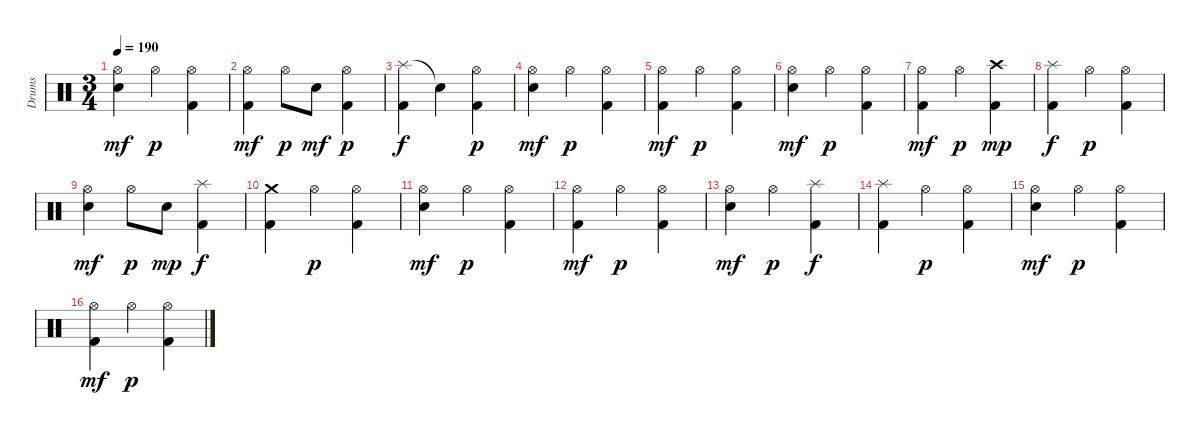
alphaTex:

\track ("Drums" "Drums") {instrument percussion}
\staff {score}
\articulation defaults
\ts (3 4)
\tempo 190
\clef neutral
\ks c
("Hi-Hat (open)" "Electric Snare (hit)").4{dy mf} "Hi-Hat (open)".4{dy p} ("Hi-Hat (open)" "Kick (hit) 2").4 |
("Hi-Hat (open)" "Kick (hit) 2").4{dy mf} "Hi-Hat (open)".8{dy p} "Electric Snare (hit)".8{dy mf} ("Hi-Hat (open)" "Kick (hit) 2").4{dy p} |
("Splash (hit)" "Kick (hit) 2").4{dy f} "Snare (hit)"{t}.4 ("Hi-Hat (open)" "Kick (hit) 2").4{dy p} |
("Hi-Hat (open)" "Electric Snare (hit)").4{dy mf} "Hi-Hat (open)".4{dy p} ("Hi-Hat (open)" "Kick (hit) 2").4 |
("Hi-Hat (open)" "Kick (hit) 2").4{dy mf} "Hi-Hat (open)".4{dy p} ("Hi-Hat (open)" "Kick (hit) 2").4 |
("Hi-Hat (open)" "Electric Snare (hit)").4{dy mf} "Hi-Hat (open)".4{dy p} ("Hi-Hat (open)" "Kick (hit) 2").4 |
("Hi-Hat (open)" "Kick (hit) 2").4{dy mf} "Hi-Hat (open)".4{dy p} ("Crash high (hit)" "Kick (hit) 2").4{dy mp} |
("Splash (hit)" "Kick (hit) 2").4{dy f} "Hi-Hat (open)".4{dy p} ("Hi-Hat (open)" "Kick (hit) 2").4 |
("Hi-Hat (open)" "Electric Snare (hit)").4{dy mf} "Hi-Hat (open)".8{dy p} "Electric Snare (hit)".8{dy mp} ("Splash (hit)" "Kick (hit) 2").4{dy f} |
("Crash medium (hit)" "Kick (hit) 2").4 "Hi-Hat (open)".4{dy p} ("Hi-Hat (open)" "Kick (hit) 2").4 |
("Hi-Hat (open)" "Electric Snare (hit)").4{dy mf} "Hi-Hat (open)".4{dy p} ("Hi-Hat (open)" "Kick (hit) 2").4 |
("Hi-Hat (open)" "Kick (hit) 2").4{dy mf} "Hi-Hat (open)".4{dy p} ("Hi-Hat (open)" "Kick (hit) 2").4 |
("Hi-Hat (open)" "Electric Snare (hit)").4{dy mf} "Hi-Hat (open)".4{dy p} ("Splash (hit)" "Kick (hit) 2").4{dy f} |
("Splash (hit)" "Kick (hit) 2").4 "Hi-Hat (open)".4{dy p} ("Hi-Hat (open)" "Kick (hit) 2").4 |
("Hi-Hat (open)" "Electric Snare (hit)").4{dy mf} "Hi-Hat (open)".4{dy p} ("Hi-Hat (open)" "Kick (hit) 2").4 |
("Hi-Hat (open)" "Kick (hit) 2").4{dy mf} "Hi-Hat (open)".4{dy p} ("Hi-Hat (open)" "Kick (hit) 2").4
